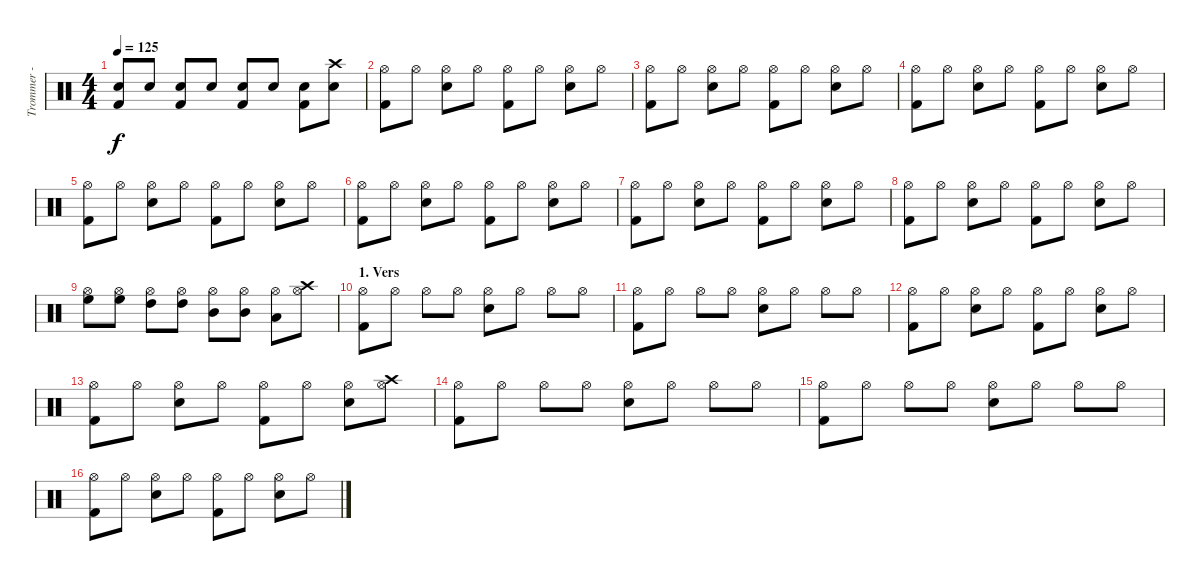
\track ("Trommer - Alex" "Trommer - ") {instrument percussion}
\staff {score}
\articulation defaults
\ts (4 4)
\tempo 125
\clef neutral
\ks c
("Electric Snare (hit)" "Kick (hit) 2").8{dy f} "Electric Snare (hit)".8 ("Electric Snare (hit)" "Kick (hit) 2").8 "Electric Snare (hit)".8 ("Electric Snare (hit)" "Kick (hit) 2").8 "Electric Snare (hit)".8 ("Electric Snare (hit)" "Kick (hit) 2").8 ("Crash high (hit)" "Electric Snare (hit)").8 |
("Hi-Hat (open)" "Kick (hit) 2").8 "Hi-Hat (open)".8 ("Hi-Hat (open)" "Snare (hit) 2").8 "Hi-Hat (open)".8 ("Hi-Hat (open)" "Kick (hit) 2").8 "Hi-Hat (open)".8 ("Hi-Hat (open)" "Snare (hit) 2").8 "Hi-Hat (open)".8 |
("Hi-Hat (open)" "Kick (hit) 2").8 "Hi-Hat (open)".8 ("Hi-Hat (open)" "Snare (hit) 2").8 "Hi-Hat (open)".8 ("Hi-Hat (open)" "Kick (hit) 2").8 "Hi-Hat (open)".8 ("Hi-Hat (open)" "Snare (hit) 2").8 "Hi-Hat (open)".8 |
("Hi-Hat (open)" "Kick (hit) 2").8 "Hi-Hat (open)".8 ("Hi-Hat (open)" "Snare (hit) 2").8 "Hi-Hat (open)".8 ("Hi-Hat (open)" "Kick (hit) 2").8 "Hi-Hat (open)".8 ("Hi-Hat (open)" "Snare (hit) 2").8 "Hi-Hat (open)".8 |
("Hi-Hat (open)" "Kick (hit) 2").8 "Hi-Hat (open)".8 ("Hi-Hat (open)" "Snare (hit) 2").8 "Hi-Hat (open)".8 ("Hi-Hat (open)" "Kick (hit) 2").8 "Hi-Hat (open)".8 ("Hi-Hat (open)" "Snare (hit) 2").8 "Hi-Hat (open)".8 |
("Hi-Hat (open)" "Kick (hit) 2").8 "Hi-Hat (open)".8 ("Hi-Hat (open)" "Snare (hit) 2").8 "Hi-Hat (open)".8 ("Hi-Hat (open)" "Kick (hit) 2").8 "Hi-Hat (open)".8 ("Hi-Hat (open)" "Snare (hit) 2").8 "Hi-Hat (open)".8 |
("Hi-Hat (open)" "Kick (hit) 2").8 "Hi-Hat (open)".8 ("Hi-Hat (open)" "Snare (hit) 2").8 "Hi-Hat (open)".8 ("Hi-Hat (open)" "Kick (hit) 2").8 "Hi-Hat (open)".8 ("Hi-Hat (open)" "Snare (hit) 2").8 "Hi-Hat (open)".8 |
("Hi-Hat (open)" "Kick (hit) 2").8 "Hi-Hat (open)".8 ("Hi-Hat (open)" "Snare (hit) 2").8 "Hi-Hat (open)".8 ("Hi-Hat (open)" "Kick (hit) 2").8 "Hi-Hat (open)".8 ("Hi-Hat (open)" "Snare (hit) 2").8 "Hi-Hat (open)".8 |
("Hi-Hat (open)" "High Floor Tom (hit)").8 ("Hi-Hat (open)" "High Floor Tom (hit)").8 ("Hi-Hat (open)" "High Tom (hit)").8 ("Hi-Hat (open)" "High Tom (hit)").8 ("Hi-Hat (open)" "Mid Tom (hit)").8 ("Hi-Hat (open)" "Mid Tom (hit)").8 ("Hi-Hat (open)" "Low Tom (hit)").8 ("Hi-Hat (open)" "Crash high (hit)").8 |
\section ("" "1. Vers")
("Hi-Hat (open)" "Kick (hit) 2").8 "Hi-Hat (open)".8 "Hi-Hat (open)".8 "Hi-Hat (open)".8 ("Hi-Hat (open)" "Snare (hit) 2").8 "Hi-Hat (open)".8 "Hi-Hat (open)".8 "Hi-Hat (open)".8 |
("Hi-Hat (open)" "Kick (hit) 2").8 "Hi-Hat (open)".8 "Hi-Hat (open)".8 "Hi-Hat (open)".8 ("Hi-Hat (open)" "Snare (hit) 2").8 "Hi-Hat (open)".8 "Hi-Hat (open)".8 "Hi-Hat (open)".8 |
("Hi-Hat (open)" "Kick (hit) 2").8 "Hi-Hat (open)".8 ("Hi-Hat (open)" "Snare (hit) 2").8 "Hi-Hat (open)".8 ("Hi-Hat (open)" "Kick (hit) 2").8 "Hi-Hat (open)".8 ("Hi-Hat (open)" "Snare (hit) 2").8 "Hi-Hat (open)".8 |
("Hi-Hat (open)" "Kick (hit) 2").8 "Hi-Hat (open)".8 ("Hi-Hat (open)" "Snare (hit) 2").8 "Hi-Hat (open)".8 ("Hi-Hat (open)" "Kick (hit) 2").8 "Hi-Hat (open)".8 ("Hi-Hat (open)" "Snare (hit) 2").8 ("Hi-Hat (open)" "Crash high (hit)").8 |
("Hi-Hat (open)" "Kick (hit) 2").8 "Hi-Hat (open)".8 "Hi-Hat (open)".8 "Hi-Hat (open)".8 ("Hi-Hat (open)" "Snare (hit) 2").8 "Hi-Hat (open)".8 "Hi-Hat (open)".8 "Hi-Hat (open)".8 |
("Hi-Hat (open)" "Kick (hit) 2").8 "Hi-Hat (open)".8 "Hi-Hat (open)".8 "Hi-Hat (open)".8 ("Hi-Hat (open)" "Snare (hit) 2").8 "Hi-Hat (open)".8 "Hi-Hat (open)".8 "Hi-Hat (open)".8 |
("Hi-Hat (open)" "Kick (hit) 2").8 "Hi-Hat (open)".8 ("Hi-Hat (open)" "Snare (hit) 2").8 "Hi-Hat (open)".8 ("Hi-Hat (open)" "Kick (hit) 2").8 "Hi-Hat (open)".8 ("Hi-Hat (open)" "Snare (hit) 2").8 "Hi-Hat (open)".8
